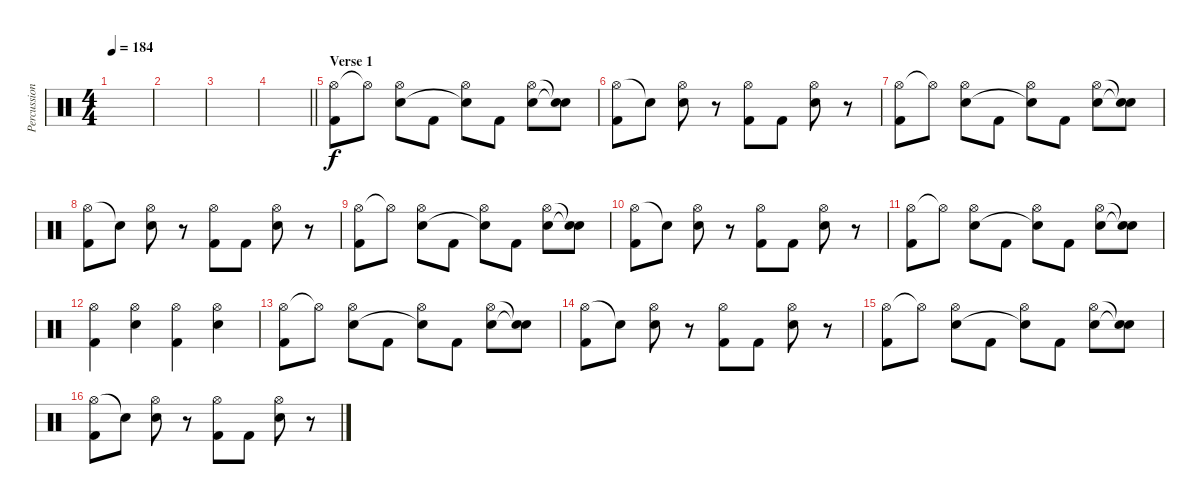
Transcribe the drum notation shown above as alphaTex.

\track ("Percussion" "Percussion") {instrument percussion}
\staff {score}
\articulation defaults
\ts (4 4)
\tempo 184
\clef neutral
\ks c
|
|
|
\barLineRight lightlight
|
\section ("" "Verse 1")
("Hi-Hat (open)" "Kick (hit) 2").8 "Hi-Hat (open)"{t}.8 ("Hi-Hat (open)" "Electric Snare (hit)").8 "Kick (hit) 2".8 ("Hi-Hat (open)" "Snare (hit)"{t}).8 "Kick (hit) 2".8 ("Hi-Hat (open)" "Electric Snare (hit)").8 ("Snare (hit)"{t} "Snare (hit)"{t}).8 |
("Hi-Hat (open)" "Kick (hit) 2").8 "Snare (hit)"{t}.8 ("Hi-Hat (open)" "Electric Snare (hit)").8 r.8 ("Hi-Hat (open)" "Kick (hit) 2").8 "Kick (hit) 2".8 ("Hi-Hat (open)" "Electric Snare (hit)").8 r.8 |
("Hi-Hat (open)" "Kick (hit) 2").8 "Hi-Hat (open)"{t}.8 ("Hi-Hat (open)" "Electric Snare (hit)").8 "Kick (hit) 2".8 ("Hi-Hat (open)" "Snare (hit)"{t}).8 "Kick (hit) 2".8 ("Hi-Hat (open)" "Electric Snare (hit)").8 ("Snare (hit)"{t} "Snare (hit)"{t}).8 |
("Hi-Hat (open)" "Kick (hit) 2").8 "Snare (hit)"{t}.8 ("Hi-Hat (open)" "Electric Snare (hit)").8 r.8 ("Hi-Hat (open)" "Kick (hit) 2").8 "Kick (hit) 2".8 ("Hi-Hat (open)" "Electric Snare (hit)").8 r.8 |
("Hi-Hat (open)" "Kick (hit) 2").8 "Hi-Hat (open)"{t}.8 ("Hi-Hat (open)" "Electric Snare (hit)").8 "Kick (hit) 2".8 ("Hi-Hat (open)" "Snare (hit)"{t}).8 "Kick (hit) 2".8 ("Hi-Hat (open)" "Electric Snare (hit)").8 ("Snare (hit)"{t} "Snare (hit)"{t}).8 |
("Hi-Hat (open)" "Kick (hit) 2").8 "Snare (hit)"{t}.8 ("Hi-Hat (open)" "Electric Snare (hit)").8 r.8 ("Hi-Hat (open)" "Kick (hit) 2").8 "Kick (hit) 2".8 ("Hi-Hat (open)" "Electric Snare (hit)").8 r.8 |
("Hi-Hat (open)" "Kick (hit) 2").8 "Hi-Hat (open)"{t}.8 ("Hi-Hat (open)" "Electric Snare (hit)").8 "Kick (hit) 2".8 ("Hi-Hat (open)" "Snare (hit)"{t}).8 "Kick (hit) 2".8 ("Hi-Hat (open)" "Electric Snare (hit)").8 ("Snare (hit)"{t} "Snare (hit)"{t}).8 |
("Hi-Hat (open)" "Kick (hit) 2").4 ("Hi-Hat (open)" "Electric Snare (hit)").4 ("Hi-Hat (open)" "Kick (hit) 2").4 ("Hi-Hat (open)" "Electric Snare (hit)").4 |
("Hi-Hat (open)" "Kick (hit) 2").8 "Hi-Hat (open)"{t}.8 ("Hi-Hat (open)" "Electric Snare (hit)").8 "Kick (hit) 2".8 ("Hi-Hat (open)" "Snare (hit)"{t}).8 "Kick (hit) 2".8 ("Hi-Hat (open)" "Electric Snare (hit)").8 ("Snare (hit)"{t} "Snare (hit)"{t}).8 |
("Hi-Hat (open)" "Kick (hit) 2").8 "Snare (hit)"{t}.8 ("Hi-Hat (open)" "Electric Snare (hit)").8 r.8 ("Hi-Hat (open)" "Kick (hit) 2").8 "Kick (hit) 2".8 ("Hi-Hat (open)" "Electric Snare (hit)").8 r.8 |
("Hi-Hat (open)" "Kick (hit) 2").8 "Hi-Hat (open)"{t}.8 ("Hi-Hat (open)" "Electric Snare (hit)").8 "Kick (hit) 2".8 ("Hi-Hat (open)" "Snare (hit)"{t}).8 "Kick (hit) 2".8 ("Hi-Hat (open)" "Electric Snare (hit)").8 ("Snare (hit)"{t} "Snare (hit)"{t}).8 |
("Hi-Hat (open)" "Kick (hit) 2").8 "Snare (hit)"{t}.8 ("Hi-Hat (open)" "Electric Snare (hit)").8 r.8 ("Hi-Hat (open)" "Kick (hit) 2").8 "Kick (hit) 2".8 ("Hi-Hat (open)" "Electric Snare (hit)").8 r.8
